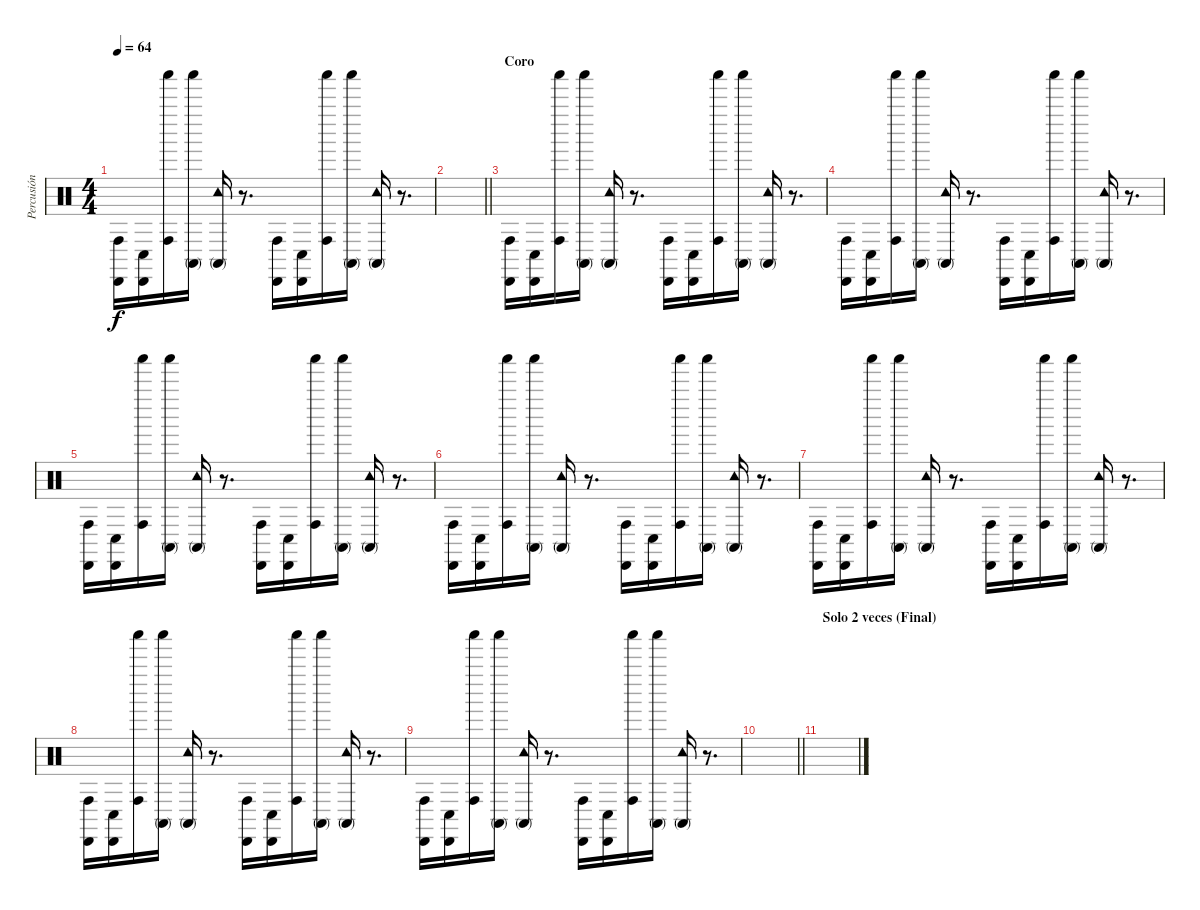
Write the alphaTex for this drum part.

\track ("Percusión" "Percusión") {instrument percussion}
\staff {score}
\articulation defaults
\ts (4 4)
\tempo 64
\clef neutral
\ks c
("Conga high (hit)" "Cabasa (hit)").16{dy f} ("Conga low (hit)" "Cabasa (hit)").16 ("Conga high (hit)" "Shaker (hit)").16 ("Conga high (mute)" "Shaker (hit)").16 ("Conga high (mute)" "Tambourine (hit)").16 r.8{d} ("Conga high (hit)" "Cabasa (hit)").16 ("Conga low (hit)" "Cabasa (hit)").16 ("Conga high (hit)" "Shaker (hit)").16 ("Conga high (mute)" "Shaker (hit)").16 ("Conga high (mute)" "Tambourine (hit)").16 r.8{d} |
\barLineRight lightlight
|
\section ("" "Coro")
("Conga high (hit)" "Cabasa (hit)").16 ("Conga low (hit)" "Cabasa (hit)").16 ("Conga high (hit)" "Shaker (hit)").16 ("Conga high (mute)" "Shaker (hit)").16 ("Conga high (mute)" "Tambourine (hit)").16 r.8{d} ("Conga high (hit)" "Cabasa (hit)").16 ("Conga low (hit)" "Cabasa (hit)").16 ("Conga high (hit)" "Shaker (hit)").16 ("Conga high (mute)" "Shaker (hit)").16 ("Conga high (mute)" "Tambourine (hit)").16 r.8{d} |
("Conga high (hit)" "Cabasa (hit)").16 ("Conga low (hit)" "Cabasa (hit)").16 ("Conga high (hit)" "Shaker (hit)").16 ("Conga high (mute)" "Shaker (hit)").16 ("Conga high (mute)" "Tambourine (hit)").16 r.8{d} ("Conga high (hit)" "Cabasa (hit)").16 ("Conga low (hit)" "Cabasa (hit)").16 ("Conga high (hit)" "Shaker (hit)").16 ("Conga high (mute)" "Shaker (hit)").16 ("Conga high (mute)" "Tambourine (hit)").16 r.8{d} |
("Conga high (hit)" "Cabasa (hit)").16 ("Conga low (hit)" "Cabasa (hit)").16 ("Conga high (hit)" "Shaker (hit)").16 ("Conga high (mute)" "Shaker (hit)").16 ("Conga high (mute)" "Tambourine (hit)").16 r.8{d} ("Conga high (hit)" "Cabasa (hit)").16 ("Conga low (hit)" "Cabasa (hit)").16 ("Conga high (hit)" "Shaker (hit)").16 ("Conga high (mute)" "Shaker (hit)").16 ("Conga high (mute)" "Tambourine (hit)").16 r.8{d} |
("Conga high (hit)" "Cabasa (hit)").16 ("Conga low (hit)" "Cabasa (hit)").16 ("Conga high (hit)" "Shaker (hit)").16 ("Conga high (mute)" "Shaker (hit)").16 ("Conga high (mute)" "Tambourine (hit)").16 r.8{d} ("Conga high (hit)" "Cabasa (hit)").16 ("Conga low (hit)" "Cabasa (hit)").16 ("Conga high (hit)" "Shaker (hit)").16 ("Conga high (mute)" "Shaker (hit)").16 ("Conga high (mute)" "Tambourine (hit)").16 r.8{d} |
("Conga high (hit)" "Cabasa (hit)").16 ("Conga low (hit)" "Cabasa (hit)").16 ("Conga high (hit)" "Shaker (hit)").16 ("Conga high (mute)" "Shaker (hit)").16 ("Conga high (mute)" "Tambourine (hit)").16 r.8{d} ("Conga high (hit)" "Cabasa (hit)").16 ("Conga low (hit)" "Cabasa (hit)").16 ("Conga high (hit)" "Shaker (hit)").16 ("Conga high (mute)" "Shaker (hit)").16 ("Conga high (mute)" "Tambourine (hit)").16 r.8{d} |
("Conga high (hit)" "Cabasa (hit)").16 ("Conga low (hit)" "Cabasa (hit)").16 ("Conga high (hit)" "Shaker (hit)").16 ("Conga high (mute)" "Shaker (hit)").16 ("Conga high (mute)" "Tambourine (hit)").16 r.8{d} ("Conga high (hit)" "Cabasa (hit)").16 ("Conga low (hit)" "Cabasa (hit)").16 ("Conga high (hit)" "Shaker (hit)").16 ("Conga high (mute)" "Shaker (hit)").16 ("Conga high (mute)" "Tambourine (hit)").16 r.8{d} |
("Conga high (hit)" "Cabasa (hit)").16 ("Conga low (hit)" "Cabasa (hit)").16 ("Conga high (hit)" "Shaker (hit)").16 ("Conga high (mute)" "Shaker (hit)").16 ("Conga high (mute)" "Tambourine (hit)").16 r.8{d} ("Conga high (hit)" "Cabasa (hit)").16 ("Conga low (hit)" "Cabasa (hit)").16 ("Conga high (hit)" "Shaker (hit)").16 ("Conga high (mute)" "Shaker (hit)").16 ("Conga high (mute)" "Tambourine (hit)").16 r.8{d} |
\barLineRight lightlight
|
\section ("" "Solo 2 veces (Final)")
